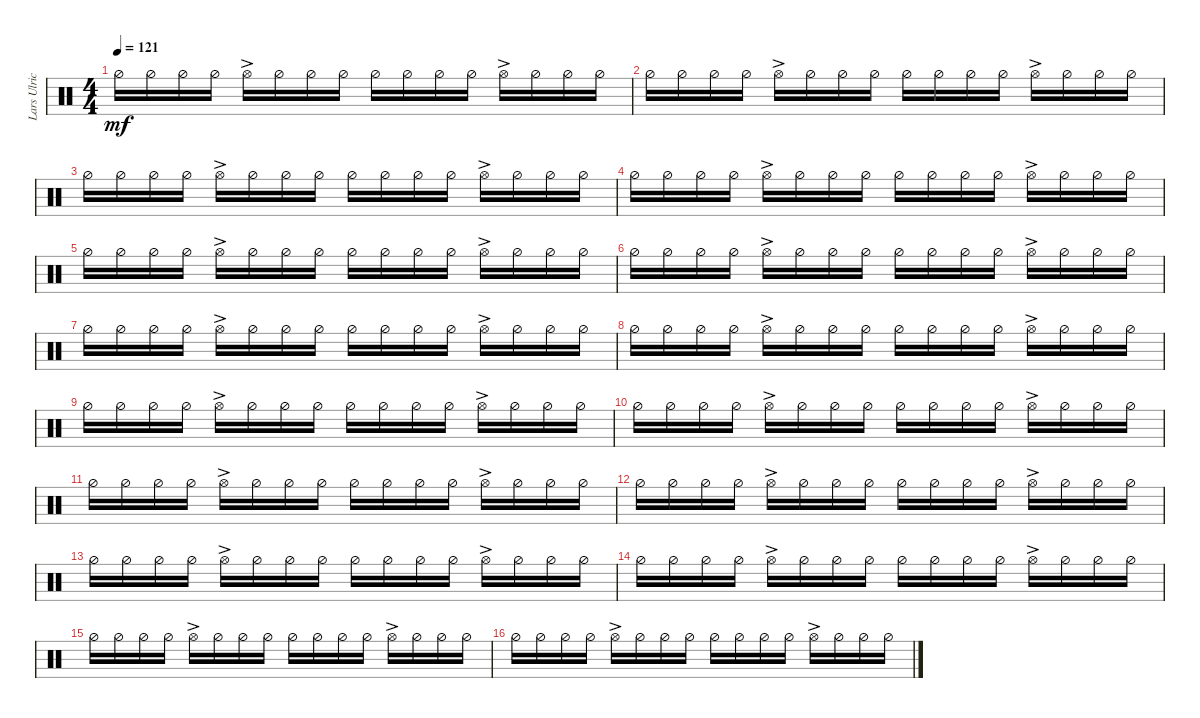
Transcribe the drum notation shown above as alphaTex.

\track ("Lars Ulrich" "Lars Ulric") {instrument percussion}
\staff {score}
\articulation defaults
\ts (4 4)
\tempo 121
\clef neutral
\ks c "Hi-Hat (half)".16{dy mf} "Hi-Hat (half)".16 "Hi-Hat (half)".16 "Hi-Hat (half)".16 "Hi-Hat (open)"{ac}.16 "Hi-Hat (half)".16 "Hi-Hat (half)".16 "Hi-Hat (half)".16 "Hi-Hat (half)".16 "Hi-Hat (half)".16 "Hi-Hat (half)".16 "Hi-Hat (half)".16 "Hi-Hat (open)"{ac}.16 "Hi-Hat (half)".16 "Hi-Hat (half)".16 "Hi-Hat (half)".16
|
"Hi-Hat (half)".16 "Hi-Hat (half)".16 "Hi-Hat (half)".16 "Hi-Hat (half)".16 "Hi-Hat (open)"{ac}.16 "Hi-Hat (half)".16 "Hi-Hat (half)".16 "Hi-Hat (half)".16 "Hi-Hat (half)".16 "Hi-Hat (half)".16 "Hi-Hat (half)".16 "Hi-Hat (half)".16 "Hi-Hat (open)"{ac}.16 "Hi-Hat (half)".16 "Hi-Hat (half)".16 "Hi-Hat (half)".16 |
"Hi-Hat (half)".16 "Hi-Hat (half)".16 "Hi-Hat (half)".16 "Hi-Hat (half)".16 "Hi-Hat (open)"{ac}.16 "Hi-Hat (half)".16 "Hi-Hat (half)".16 "Hi-Hat (half)".16 "Hi-Hat (half)".16 "Hi-Hat (half)".16 "Hi-Hat (half)".16 "Hi-Hat (half)".16 "Hi-Hat (open)"{ac}.16 "Hi-Hat (half)".16 "Hi-Hat (half)".16 "Hi-Hat (half)".16 |
"Hi-Hat (half)".16 "Hi-Hat (half)".16 "Hi-Hat (half)".16 "Hi-Hat (half)".16 "Hi-Hat (open)"{ac}.16 "Hi-Hat (half)".16 "Hi-Hat (half)".16 "Hi-Hat (half)".16 "Hi-Hat (half)".16 "Hi-Hat (half)".16 "Hi-Hat (half)".16 "Hi-Hat (half)".16 "Hi-Hat (open)"{ac}.16 "Hi-Hat (half)".16 "Hi-Hat (half)".16 "Hi-Hat (half)".16 |
"Hi-Hat (half)".16 "Hi-Hat (half)".16 "Hi-Hat (half)".16 "Hi-Hat (half)".16 "Hi-Hat (open)"{ac}.16 "Hi-Hat (half)".16 "Hi-Hat (half)".16 "Hi-Hat (half)".16 "Hi-Hat (half)".16 "Hi-Hat (half)".16 "Hi-Hat (half)".16 "Hi-Hat (half)".16 "Hi-Hat (open)"{ac}.16 "Hi-Hat (half)".16 "Hi-Hat (half)".16 "Hi-Hat (half)".16 |
"Hi-Hat (half)".16 "Hi-Hat (half)".16 "Hi-Hat (half)".16 "Hi-Hat (half)".16 "Hi-Hat (open)"{ac}.16 "Hi-Hat (half)".16 "Hi-Hat (half)".16 "Hi-Hat (half)".16 "Hi-Hat (half)".16 "Hi-Hat (half)".16 "Hi-Hat (half)".16 "Hi-Hat (half)".16 "Hi-Hat (open)"{ac}.16 "Hi-Hat (half)".16 "Hi-Hat (half)".16 "Hi-Hat (half)".16 |
"Hi-Hat (half)".16 "Hi-Hat (half)".16 "Hi-Hat (half)".16 "Hi-Hat (half)".16 "Hi-Hat (open)"{ac}.16 "Hi-Hat (half)".16 "Hi-Hat (half)".16 "Hi-Hat (half)".16 "Hi-Hat (half)".16 "Hi-Hat (half)".16 "Hi-Hat (half)".16 "Hi-Hat (half)".16 "Hi-Hat (open)"{ac}.16 "Hi-Hat (half)".16 "Hi-Hat (half)".16 "Hi-Hat (half)".16 |
"Hi-Hat (half)".16 "Hi-Hat (half)".16 "Hi-Hat (half)".16 "Hi-Hat (half)".16 "Hi-Hat (open)"{ac}.16 "Hi-Hat (half)".16 "Hi-Hat (half)".16 "Hi-Hat (half)".16 "Hi-Hat (half)".16 "Hi-Hat (half)".16 "Hi-Hat (half)".16 "Hi-Hat (half)".16 "Hi-Hat (open)"{ac}.16 "Hi-Hat (half)".16 "Hi-Hat (half)".16 "Hi-Hat (half)".16 |
"Hi-Hat (half)".16 "Hi-Hat (half)".16 "Hi-Hat (half)".16 "Hi-Hat (half)".16 "Hi-Hat (open)"{ac}.16 "Hi-Hat (half)".16 "Hi-Hat (half)".16 "Hi-Hat (half)".16 "Hi-Hat (half)".16 "Hi-Hat (half)".16 "Hi-Hat (half)".16 "Hi-Hat (half)".16 "Hi-Hat (open)"{ac}.16 "Hi-Hat (half)".16 "Hi-Hat (half)".16 "Hi-Hat (half)".16 |
"Hi-Hat (half)".16 "Hi-Hat (half)".16 "Hi-Hat (half)".16 "Hi-Hat (half)".16 "Hi-Hat (open)"{ac}.16 "Hi-Hat (half)".16 "Hi-Hat (half)".16 "Hi-Hat (half)".16 "Hi-Hat (half)".16 "Hi-Hat (half)".16 "Hi-Hat (half)".16 "Hi-Hat (half)".16 "Hi-Hat (open)"{ac}.16 "Hi-Hat (half)".16 "Hi-Hat (half)".16 "Hi-Hat (half)".16 |
"Hi-Hat (half)".16 "Hi-Hat (half)".16 "Hi-Hat (half)".16 "Hi-Hat (half)".16 "Hi-Hat (open)"{ac}.16 "Hi-Hat (half)".16 "Hi-Hat (half)".16 "Hi-Hat (half)".16 "Hi-Hat (half)".16 "Hi-Hat (half)".16 "Hi-Hat (half)".16 "Hi-Hat (half)".16 "Hi-Hat (open)"{ac}.16 "Hi-Hat (half)".16 "Hi-Hat (half)".16 "Hi-Hat (half)".16 |
"Hi-Hat (half)".16 "Hi-Hat (half)".16 "Hi-Hat (half)".16 "Hi-Hat (half)".16 "Hi-Hat (open)"{ac}.16 "Hi-Hat (half)".16 "Hi-Hat (half)".16 "Hi-Hat (half)".16 "Hi-Hat (half)".16 "Hi-Hat (half)".16 "Hi-Hat (half)".16 "Hi-Hat (half)".16 "Hi-Hat (open)"{ac}.16 "Hi-Hat (half)".16 "Hi-Hat (half)".16 "Hi-Hat (half)".16 |
"Hi-Hat (half)".16 "Hi-Hat (half)".16 "Hi-Hat (half)".16 "Hi-Hat (half)".16 "Hi-Hat (open)"{ac}.16 "Hi-Hat (half)".16 "Hi-Hat (half)".16 "Hi-Hat (half)".16 "Hi-Hat (half)".16 "Hi-Hat (half)".16 "Hi-Hat (half)".16 "Hi-Hat (half)".16 "Hi-Hat (open)"{ac}.16 "Hi-Hat (half)".16 "Hi-Hat (half)".16 "Hi-Hat (half)".16 |
"Hi-Hat (half)".16 "Hi-Hat (half)".16 "Hi-Hat (half)".16 "Hi-Hat (half)".16 "Hi-Hat (open)"{ac}.16 "Hi-Hat (half)".16 "Hi-Hat (half)".16 "Hi-Hat (half)".16 "Hi-Hat (half)".16 "Hi-Hat (half)".16 "Hi-Hat (half)".16 "Hi-Hat (half)".16 "Hi-Hat (open)"{ac}.16 "Hi-Hat (half)".16 "Hi-Hat (half)".16 "Hi-Hat (half)".16 |
"Hi-Hat (half)".16 "Hi-Hat (half)".16 "Hi-Hat (half)".16 "Hi-Hat (half)".16 "Hi-Hat (open)"{ac}.16 "Hi-Hat (half)".16 "Hi-Hat (half)".16 "Hi-Hat (half)".16 "Hi-Hat (half)".16 "Hi-Hat (half)".16 "Hi-Hat (half)".16 "Hi-Hat (half)".16 "Hi-Hat (open)"{ac}.16 "Hi-Hat (half)".16 "Hi-Hat (half)".16 "Hi-Hat (half)".16 |
"Hi-Hat (half)".16 "Hi-Hat (half)".16 "Hi-Hat (half)".16 "Hi-Hat (half)".16 "Hi-Hat (open)"{ac}.16 "Hi-Hat (half)".16 "Hi-Hat (half)".16 "Hi-Hat (half)".16 "Hi-Hat (half)".16 "Hi-Hat (half)".16 "Hi-Hat (half)".16 "Hi-Hat (half)".16 "Hi-Hat (open)"{ac}.16 "Hi-Hat (half)".16 "Hi-Hat (half)".16 "Hi-Hat (half)".16
